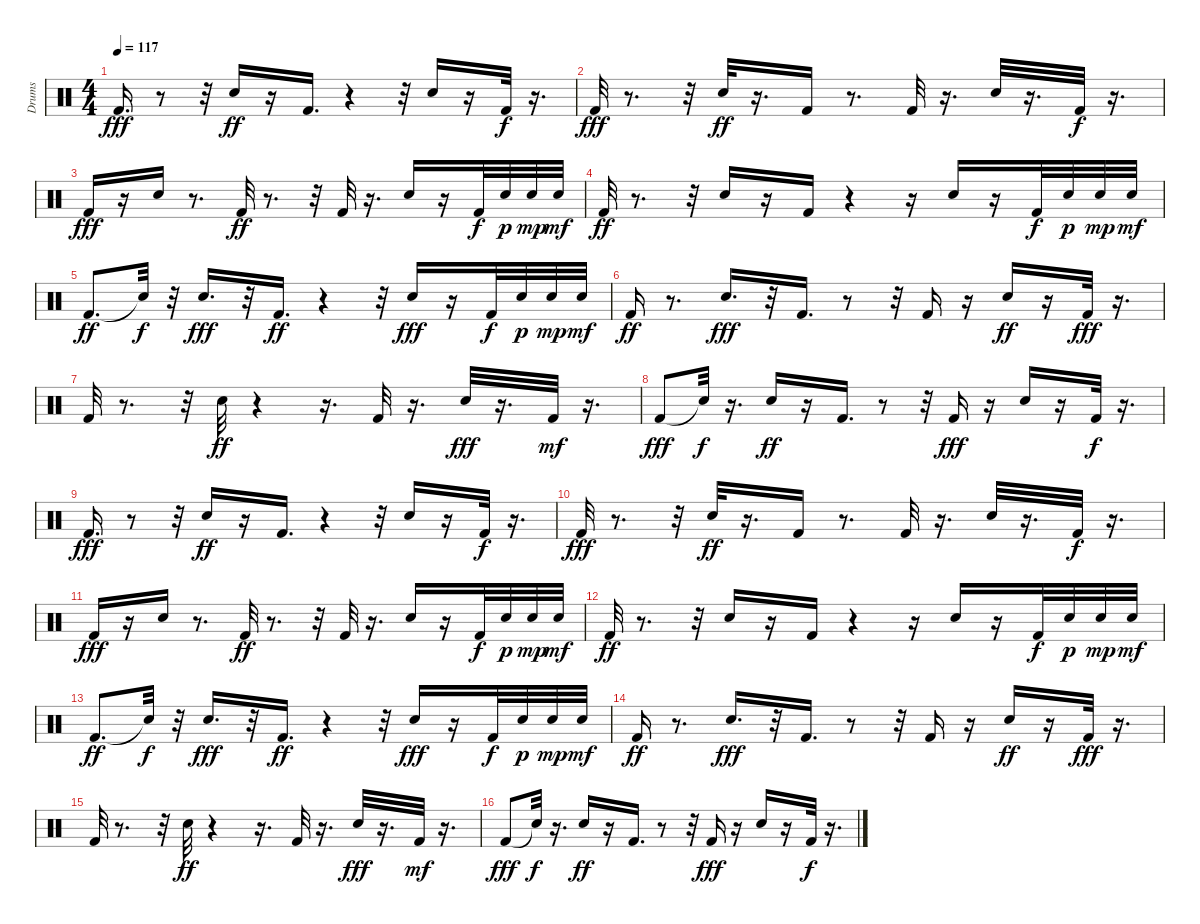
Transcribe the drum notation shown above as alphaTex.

\track ("Drums" "Drums") {instrument percussion}
\staff {score}
\articulation defaults
\ts (4 4)
\tempo 117
\clef neutral
\ks c "Kick (hit) 2".16{d dy fff}
r.8 r.32 "Snare (hit) 2".16{dy ff} r.16 "Kick (hit) 2".16{d} r.4 r.32 "Snare (hit) 2".16 r.16 "Kick (hit) 2".32{dy f} r.16{d} |
"Kick (hit) 2".32{dy fff} r.8{d} r.32 "Snare (hit) 2".32{dy ff} r.16{d} "Kick (hit) 2".16 r.8{d} "Kick (hit) 2".32 r.16{d} "Snare (hit) 2".32 r.16{d} "Kick (hit) 2".32{dy f} r.16{d} |
"Kick (hit) 2".16{dy fff} r.16 "Snare (hit) 2".16 r.8{d} "Kick (hit) 2".32{dy ff} r.8{d} r.32 "Kick (hit) 2".32 r.16{d} "Snare (hit) 2".16 r.16 "Kick (hit) 2".32{dy f} "Snare (hit) 2".32{dy p} "Snare (hit) 2".32{dy mp} "Snare (hit) 2".32{dy mf} |
"Kick (hit) 2".32{dy ff} r.8{d} r.32 "Snare (hit) 2".16 r.16 "Kick (hit) 2".16 r.4 r.16 "Snare (hit) 2".16 r.16 "Kick (hit) 2".32{dy f} "Snare (hit) 2".32{dy p} "Snare (hit) 2".32{dy mp} "Snare (hit) 2".32{dy mf} |
"Kick (hit) 2".8{d dy ff} "Snare (hit)"{t}.32{dy f} r.32 "Snare (hit) 2".16{d dy fff} r.32 "Kick (hit) 2".16{d dy ff} r.4 r.32 "Snare (hit) 2".16{dy fff} r.16 "Kick (hit) 2".32{dy f} "Snare (hit) 2".32{dy p} "Snare (hit) 2".32{dy mp} "Snare (hit) 2".32{dy mf} |
"Kick (hit) 2".16{dy ff} r.8{d} "Snare (hit) 2".16{d dy fff} r.32 "Kick (hit) 2".16{d} r.8 r.32 "Kick (hit) 2".16 r.16 "Snare (hit) 2".16{dy ff} r.16 "Kick (hit) 2".32{dy fff} r.16{d} |
"Kick (hit) 2".32 r.8{d} r.32 "Snare (hit) 2".32{dy ff} r.4 r.16{d} "Kick (hit) 2".32 r.16{d} "Snare (hit) 2".32{dy fff} r.16{d} "Kick (hit) 2".32{dy mf} r.16{d} |
"Kick (hit) 2".8{dy fff} "Snare (hit)"{t}.32{dy f} r.16{d} "Snare (hit) 2".16{dy ff} r.16 "Kick (hit) 2".16{d} r.8 r.32 "Kick (hit) 2".16{dy fff} r.16 "Snare (hit) 2".16 r.16 "Kick (hit) 2".32{dy f} r.16{d} |
"Kick (hit) 2".16{d dy fff} r.8 r.32 "Snare (hit) 2".16{dy ff} r.16 "Kick (hit) 2".16{d} r.4 r.32 "Snare (hit) 2".16 r.16 "Kick (hit) 2".32{dy f} r.16{d} |
"Kick (hit) 2".32{dy fff} r.8{d} r.32 "Snare (hit) 2".32{dy ff} r.16{d} "Kick (hit) 2".16 r.8{d} "Kick (hit) 2".32 r.16{d} "Snare (hit) 2".32 r.16{d} "Kick (hit) 2".32{dy f} r.16{d} |
"Kick (hit) 2".16{dy fff} r.16 "Snare (hit) 2".16 r.8{d} "Kick (hit) 2".32{dy ff} r.8{d} r.32 "Kick (hit) 2".32 r.16{d} "Snare (hit) 2".16 r.16 "Kick (hit) 2".32{dy f} "Snare (hit) 2".32{dy p} "Snare (hit) 2".32{dy mp} "Snare (hit) 2".32{dy mf} |
"Kick (hit) 2".32{dy ff} r.8{d} r.32 "Snare (hit) 2".16 r.16 "Kick (hit) 2".16 r.4 r.16 "Snare (hit) 2".16 r.16 "Kick (hit) 2".32{dy f} "Snare (hit) 2".32{dy p} "Snare (hit) 2".32{dy mp} "Snare (hit) 2".32{dy mf} |
"Kick (hit) 2".8{d dy ff} "Snare (hit)"{t}.32{dy f} r.32 "Snare (hit) 2".16{d dy fff} r.32 "Kick (hit) 2".16{d dy ff} r.4 r.32 "Snare (hit) 2".16{dy fff} r.16 "Kick (hit) 2".32{dy f} "Snare (hit) 2".32{dy p} "Snare (hit) 2".32{dy mp} "Snare (hit) 2".32{dy mf} |
"Kick (hit) 2".16{dy ff} r.8{d} "Snare (hit) 2".16{d dy fff} r.32 "Kick (hit) 2".16{d} r.8 r.32 "Kick (hit) 2".16 r.16 "Snare (hit) 2".16{dy ff} r.16 "Kick (hit) 2".32{dy fff} r.16{d} |
"Kick (hit) 2".32 r.8{d} r.32 "Snare (hit) 2".32{dy ff} r.4 r.16{d} "Kick (hit) 2".32 r.16{d} "Snare (hit) 2".32{dy fff} r.16{d} "Kick (hit) 2".32{dy mf} r.16{d} |
"Kick (hit) 2".8{dy fff} "Snare (hit)"{t}.32{dy f} r.16{d} "Snare (hit) 2".16{dy ff} r.16 "Kick (hit) 2".16{d} r.8 r.32 "Kick (hit) 2".16{dy fff} r.16 "Snare (hit) 2".16 r.16 "Kick (hit) 2".32{dy f} r.16{d}
